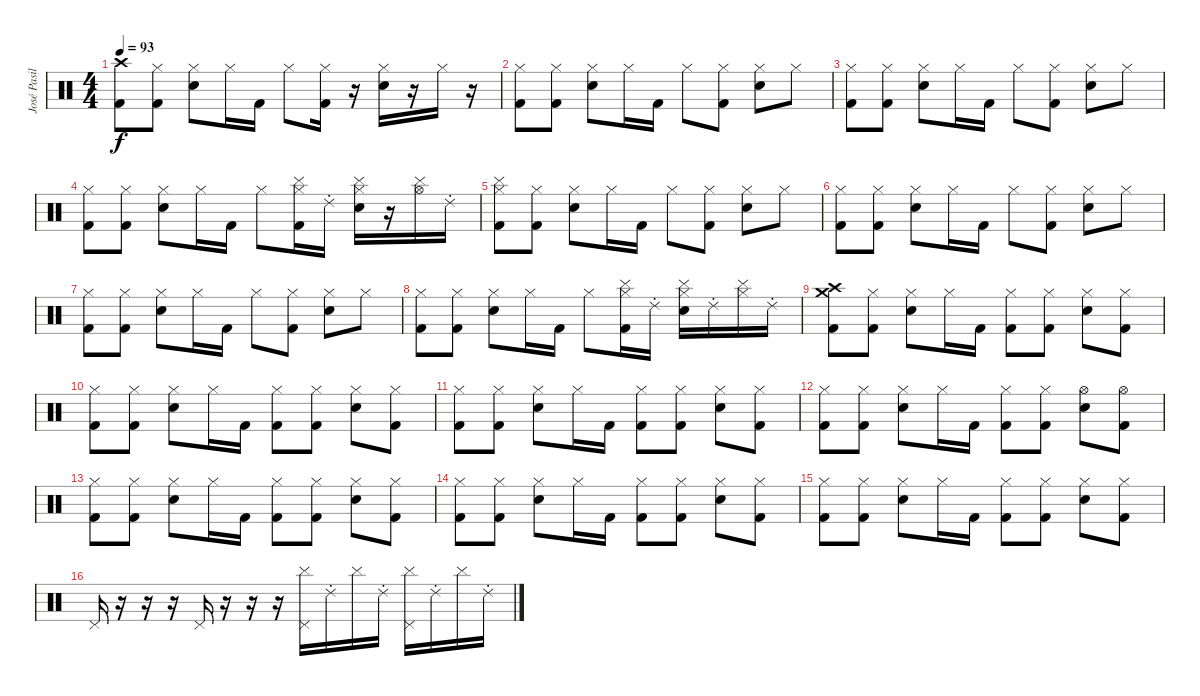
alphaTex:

\track ("José Pasillas/DJ Kilmore" "José Pasil") {instrument percussion}
\staff {score}
\articulation defaults
\ts (4 4)
\tempo 93
\clef neutral
\ks c
("Crash high (hit)" "Kick (hit) 2").8{dy f} ("Hi-Hat (closed)" "Kick (hit) 2").8 ("Hi-Hat (closed)" "Electric Snare (hit)").8 "Hi-Hat (closed)".16 "Kick (hit) 2".16 "Hi-Hat (closed)".8 ("Hi-Hat (closed)" "Kick (hit) 2").16 r.16 ("Hi-Hat (closed)" "Electric Snare (hit)").16 r.16 "Hi-Hat (closed)".16 r.16 |
("Hi-Hat (closed)" "Kick (hit) 2").8 ("Hi-Hat (closed)" "Kick (hit) 2").8 ("Hi-Hat (closed)" "Electric Snare (hit)").8 "Hi-Hat (closed)".16 "Kick (hit) 2".16 "Hi-Hat (closed)".8 ("Hi-Hat (closed)" "Kick (hit) 2").8 ("Hi-Hat (closed)" "Electric Snare (hit)").8 "Hi-Hat (closed)".8 |
("Hi-Hat (closed)" "Kick (hit) 2").8 ("Hi-Hat (closed)" "Kick (hit) 2").8 ("Hi-Hat (closed)" "Electric Snare (hit)").8 "Hi-Hat (closed)".16 "Kick (hit) 2".16 "Hi-Hat (closed)".8 ("Hi-Hat (closed)" "Kick (hit) 2").8 ("Hi-Hat (closed)" "Electric Snare (hit)").8 "Hi-Hat (closed)".8 |
("Hi-Hat (closed)" "Kick (hit) 2").8 ("Hi-Hat (closed)" "Kick (hit) 2").8 ("Hi-Hat (closed)" "Electric Snare (hit)").8 "Hi-Hat (closed)".16 "Kick (hit) 2".16 "Hi-Hat (closed)".8 ("Hi-Hat (closed)" "Cymbal (hit)" "Kick (hit) 2").16 "Ride (choke) 2".16 ("Hi-Hat (closed)" "Cymbal (hit)" "Electric Snare (hit)").16 r.16 ("Hi-Hat (open)" "Cymbal (hit)").16 "Ride (choke) 2".16 |
("Hi-Hat (closed)" "Cymbal (hit)" "Kick (hit) 2").8 ("Hi-Hat (closed)" "Kick (hit) 2").8 ("Hi-Hat (closed)" "Electric Snare (hit)").8 "Hi-Hat (closed)".16 "Kick (hit) 2".16 "Hi-Hat (closed)".8 ("Hi-Hat (closed)" "Kick (hit) 2").8 ("Hi-Hat (closed)" "Electric Snare (hit)").8 "Hi-Hat (closed)".8 |
("Hi-Hat (closed)" "Kick (hit) 2").8 ("Hi-Hat (closed)" "Kick (hit) 2").8 ("Hi-Hat (closed)" "Electric Snare (hit)").8 "Hi-Hat (closed)".16 "Kick (hit) 2".16 "Hi-Hat (closed)".8 ("Hi-Hat (closed)" "Kick (hit) 2").8 ("Hi-Hat (closed)" "Electric Snare (hit)").8 "Hi-Hat (closed)".8 |
("Hi-Hat (closed)" "Kick (hit) 2").8 ("Hi-Hat (closed)" "Kick (hit) 2").8 ("Hi-Hat (closed)" "Electric Snare (hit)").8 "Hi-Hat (closed)".16 "Kick (hit) 2".16 "Hi-Hat (closed)".8 ("Hi-Hat (closed)" "Kick (hit) 2").8 ("Hi-Hat (closed)" "Electric Snare (hit)").8 "Hi-Hat (closed)".8 |
("Hi-Hat (closed)" "Kick (hit) 2").8 ("Hi-Hat (closed)" "Kick (hit) 2").8 ("Hi-Hat (closed)" "Electric Snare (hit)").8 "Hi-Hat (closed)".16 "Kick (hit) 2".16 "Hi-Hat (closed)".8 ("Hi-Hat (closed)" "Cymbal (hit)" "Kick (hit) 2").16 "Ride (choke) 2".16 ("Hi-Hat (closed)" "Cymbal (hit)" "Electric Snare (hit)").16 "Ride (choke) 2".16 ("Hi-Hat (closed)" "Cymbal (hit)").16 "Ride (choke) 2".16 |
("Crash high (hit)" "Crash medium (hit)" "Kick (hit) 2").8 ("Hi-Hat (closed)" "Kick (hit) 2").8 ("Hi-Hat (closed)" "Electric Snare (hit)").8 "Hi-Hat (closed)".16 "Kick (hit) 2".16 ("Hi-Hat (closed)" "Kick (hit) 2").8 ("Hi-Hat (closed)" "Kick (hit) 2").8 ("Hi-Hat (closed)" "Electric Snare (hit)").8 ("Hi-Hat (closed)" "Kick (hit) 2").8 |
("Hi-Hat (closed)" "Kick (hit) 2").8 ("Hi-Hat (closed)" "Kick (hit) 2").8 ("Hi-Hat (closed)" "Electric Snare (hit)").8 "Hi-Hat (closed)".16 "Kick (hit) 2".16 ("Hi-Hat (closed)" "Kick (hit) 2").8 ("Hi-Hat (closed)" "Kick (hit) 2").8 ("Hi-Hat (closed)" "Electric Snare (hit)").8 ("Hi-Hat (closed)" "Kick (hit) 2").8 |
("Hi-Hat (closed)" "Kick (hit) 2").8 ("Hi-Hat (closed)" "Kick (hit) 2").8 ("Hi-Hat (closed)" "Electric Snare (hit)").8 "Hi-Hat (closed)".16 "Kick (hit) 2".16 ("Hi-Hat (closed)" "Kick (hit) 2").8 ("Hi-Hat (closed)" "Kick (hit) 2").8 ("Hi-Hat (closed)" "Electric Snare (hit)").8 ("Hi-Hat (closed)" "Kick (hit) 2").8 |
("Hi-Hat (closed)" "Kick (hit) 2").8 ("Hi-Hat (closed)" "Kick (hit) 2").8 ("Hi-Hat (closed)" "Electric Snare (hit)").8 "Hi-Hat (closed)".16 "Kick (hit) 2".16 ("Hi-Hat (closed)" "Kick (hit) 2").8 ("Hi-Hat (closed)" "Kick (hit) 2").8 ("Hi-Hat (open)" "Electric Snare (hit)").8 ("Hi-Hat (open)" "Kick (hit) 2").8 |
("Hi-Hat (closed)" "Kick (hit) 2").8 ("Hi-Hat (closed)" "Kick (hit) 2").8 ("Hi-Hat (closed)" "Electric Snare (hit)").8 "Hi-Hat (closed)".16 "Kick (hit) 2".16 ("Hi-Hat (closed)" "Kick (hit) 2").8 ("Hi-Hat (closed)" "Kick (hit) 2").8 ("Hi-Hat (closed)" "Electric Snare (hit)").8 ("Hi-Hat (closed)" "Kick (hit) 2").8 |
("Hi-Hat (closed)" "Kick (hit) 2").8 ("Hi-Hat (closed)" "Kick (hit) 2").8 ("Hi-Hat (closed)" "Electric Snare (hit)").8 "Hi-Hat (closed)".16 "Kick (hit) 2".16 ("Hi-Hat (closed)" "Kick (hit) 2").8 ("Hi-Hat (closed)" "Kick (hit) 2").8 ("Hi-Hat (closed)" "Electric Snare (hit)").8 ("Hi-Hat (closed)" "Kick (hit) 2").8 |
("Hi-Hat (closed)" "Kick (hit) 2").8 ("Hi-Hat (closed)" "Kick (hit) 2").8 ("Hi-Hat (closed)" "Electric Snare (hit)").8 "Hi-Hat (closed)".16 "Kick (hit) 2".16 ("Hi-Hat (closed)" "Kick (hit) 2").8 ("Hi-Hat (closed)" "Kick (hit) 2").8 ("Hi-Hat (closed)" "Electric Snare (hit)").8 ("Hi-Hat (closed)" "Kick (hit) 2").8 |
"Pedal Hi-Hat (hit)".16 r.16 r.16 r.16 "Pedal Hi-Hat (hit)".16 r.16 r.16 r.16 ("Cymbal (hit)" "Pedal Hi-Hat (hit)").16 "Ride (choke) 2".16 "Cymbal (hit)".16 "Ride (choke) 2".16 ("Cymbal (hit)" "Pedal Hi-Hat (hit)").16 "Ride (choke) 2".16 "Cymbal (hit)".16 "Ride (choke) 2".16
